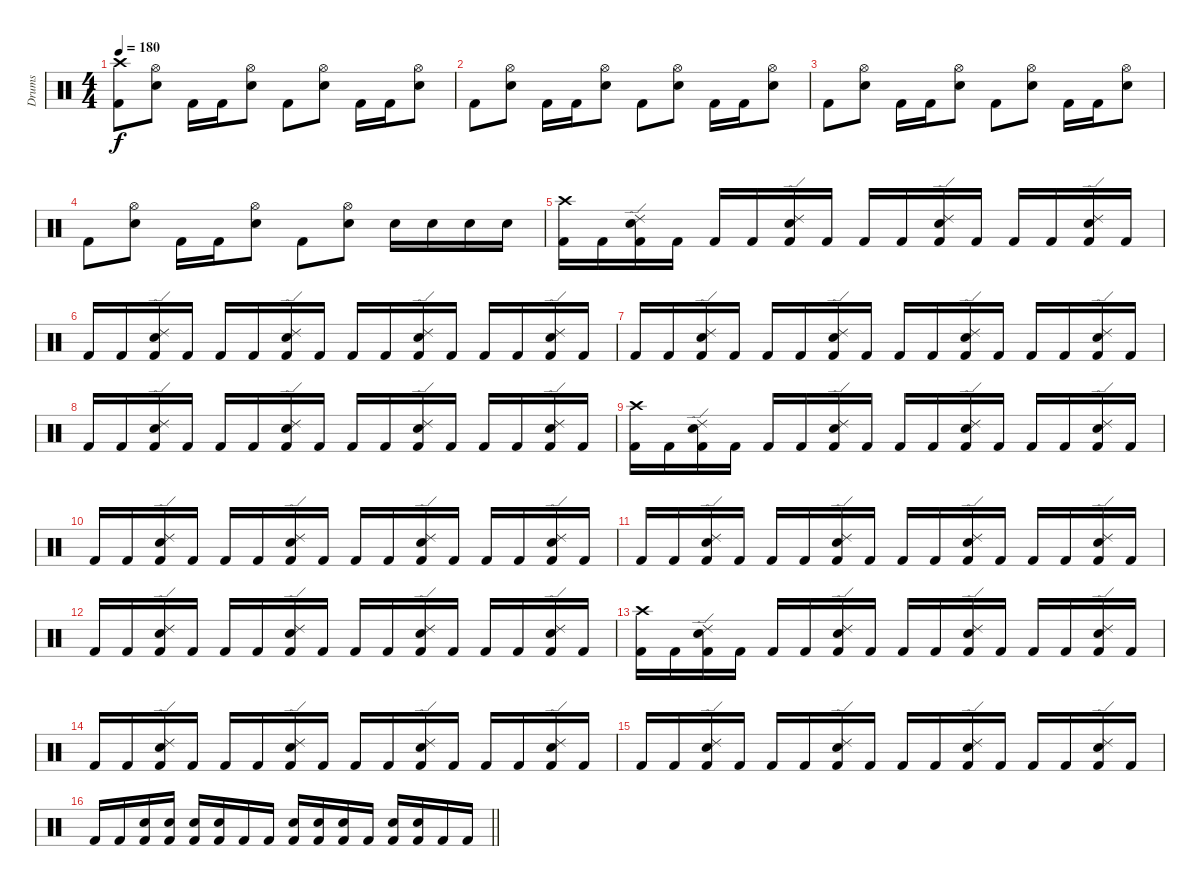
\track ("Drums" "Drums") {instrument percussion}
\staff {score}
\articulation defaults
\ts (4 4)
\tempo 180
\clef neutral
\ks c
("Crash high (hit)" "Kick (hit) 2").8{dy f} ("Hi-Hat (open)" "Electric Snare (hit)").8 "Kick (hit) 2".16 "Kick (hit) 2".16 ("Hi-Hat (open)" "Electric Snare (hit)").8 "Kick (hit) 2".8 ("Hi-Hat (open)" "Electric Snare (hit)").8 "Kick (hit) 2".16 "Kick (hit) 2".16 ("Hi-Hat (open)" "Electric Snare (hit)").8 |
"Kick (hit) 2".8 ("Hi-Hat (open)" "Electric Snare (hit)").8 "Kick (hit) 2".16 "Kick (hit) 2".16 ("Hi-Hat (open)" "Electric Snare (hit)").8 "Kick (hit) 2".8 ("Hi-Hat (open)" "Electric Snare (hit)").8 "Kick (hit) 2".16 "Kick (hit) 2".16 ("Hi-Hat (open)" "Electric Snare (hit)").8 |
"Kick (hit) 2".8 ("Hi-Hat (open)" "Electric Snare (hit)").8 "Kick (hit) 2".16 "Kick (hit) 2".16 ("Hi-Hat (open)" "Electric Snare (hit)").8 "Kick (hit) 2".8 ("Hi-Hat (open)" "Electric Snare (hit)").8 "Kick (hit) 2".16 "Kick (hit) 2".16 ("Hi-Hat (open)" "Electric Snare (hit)").8 |
"Kick (hit) 2".8 ("Hi-Hat (open)" "Electric Snare (hit)").8 "Kick (hit) 2".16 "Kick (hit) 2".16 ("Hi-Hat (open)" "Electric Snare (hit)").8 "Kick (hit) 2".8 ("Hi-Hat (open)" "Electric Snare (hit)").8 "Electric Snare (hit)".16 "Electric Snare (hit)".16 "Electric Snare (hit)".16 "Electric Snare (hit)".16 |
("Crash high (hit)" "Kick (hit) 2").16 "Kick (hit) 2".16 ("Ride (edge) 2" "Electric Snare (hit)" "Kick (hit) 2").16 "Kick (hit) 2".16 "Kick (hit) 2".16 "Kick (hit) 2".16 ("Ride (edge) 2" "Electric Snare (hit)" "Kick (hit) 2").16 "Kick (hit) 2".16 "Kick (hit) 2".16 "Kick (hit) 2".16 ("Ride (edge) 2" "Electric Snare (hit)" "Kick (hit) 2").16 "Kick (hit) 2".16 "Kick (hit) 2".16 "Kick (hit) 2".16 ("Ride (edge) 2" "Electric Snare (hit)" "Kick (hit) 2").16 "Kick (hit) 2".16 |
"Kick (hit) 2".16 "Kick (hit) 2".16 ("Ride (edge) 2" "Electric Snare (hit)" "Kick (hit) 2").16 "Kick (hit) 2".16 "Kick (hit) 2".16 "Kick (hit) 2".16 ("Ride (edge) 2" "Electric Snare (hit)" "Kick (hit) 2").16 "Kick (hit) 2".16 "Kick (hit) 2".16 "Kick (hit) 2".16 ("Ride (edge) 2" "Electric Snare (hit)" "Kick (hit) 2").16 "Kick (hit) 2".16 "Kick (hit) 2".16 "Kick (hit) 2".16 ("Ride (edge) 2" "Electric Snare (hit)" "Kick (hit) 2").16 "Kick (hit) 2".16 |
"Kick (hit) 2".16 "Kick (hit) 2".16 ("Ride (edge) 2" "Electric Snare (hit)" "Kick (hit) 2").16 "Kick (hit) 2".16 "Kick (hit) 2".16 "Kick (hit) 2".16 ("Ride (edge) 2" "Electric Snare (hit)" "Kick (hit) 2").16 "Kick (hit) 2".16 "Kick (hit) 2".16 "Kick (hit) 2".16 ("Ride (edge) 2" "Electric Snare (hit)" "Kick (hit) 2").16 "Kick (hit) 2".16 "Kick (hit) 2".16 "Kick (hit) 2".16 ("Ride (edge) 2" "Electric Snare (hit)" "Kick (hit) 2").16 "Kick (hit) 2".16 |
"Kick (hit) 2".16 "Kick (hit) 2".16 ("Ride (edge) 2" "Electric Snare (hit)" "Kick (hit) 2").16 "Kick (hit) 2".16 "Kick (hit) 2".16 "Kick (hit) 2".16 ("Ride (edge) 2" "Electric Snare (hit)" "Kick (hit) 2").16 "Kick (hit) 2".16 "Kick (hit) 2".16 "Kick (hit) 2".16 ("Ride (edge) 2" "Electric Snare (hit)" "Kick (hit) 2").16 "Kick (hit) 2".16 "Kick (hit) 2".16 "Kick (hit) 2".16 ("Ride (edge) 2" "Electric Snare (hit)" "Kick (hit) 2").16 "Kick (hit) 2".16 |
("Crash high (hit)" "Kick (hit) 2").16 "Kick (hit) 2".16 ("Ride (edge) 2" "Electric Snare (hit)" "Kick (hit) 2").16 "Kick (hit) 2".16 "Kick (hit) 2".16 "Kick (hit) 2".16 ("Ride (edge) 2" "Electric Snare (hit)" "Kick (hit) 2").16 "Kick (hit) 2".16 "Kick (hit) 2".16 "Kick (hit) 2".16 ("Ride (edge) 2" "Electric Snare (hit)" "Kick (hit) 2").16 "Kick (hit) 2".16 "Kick (hit) 2".16 "Kick (hit) 2".16 ("Ride (edge) 2" "Electric Snare (hit)" "Kick (hit) 2").16 "Kick (hit) 2".16 |
"Kick (hit) 2".16 "Kick (hit) 2".16 ("Ride (edge) 2" "Electric Snare (hit)" "Kick (hit) 2").16 "Kick (hit) 2".16 "Kick (hit) 2".16 "Kick (hit) 2".16 ("Ride (edge) 2" "Electric Snare (hit)" "Kick (hit) 2").16 "Kick (hit) 2".16 "Kick (hit) 2".16 "Kick (hit) 2".16 ("Ride (edge) 2" "Electric Snare (hit)" "Kick (hit) 2").16 "Kick (hit) 2".16 "Kick (hit) 2".16 "Kick (hit) 2".16 ("Ride (edge) 2" "Electric Snare (hit)" "Kick (hit) 2").16 "Kick (hit) 2".16 |
"Kick (hit) 2".16 "Kick (hit) 2".16 ("Ride (edge) 2" "Electric Snare (hit)" "Kick (hit) 2").16 "Kick (hit) 2".16 "Kick (hit) 2".16 "Kick (hit) 2".16 ("Ride (edge) 2" "Electric Snare (hit)" "Kick (hit) 2").16 "Kick (hit) 2".16 "Kick (hit) 2".16 "Kick (hit) 2".16 ("Ride (edge) 2" "Electric Snare (hit)" "Kick (hit) 2").16 "Kick (hit) 2".16 "Kick (hit) 2".16 "Kick (hit) 2".16 ("Ride (edge) 2" "Electric Snare (hit)" "Kick (hit) 2").16 "Kick (hit) 2".16 |
"Kick (hit) 2".16 "Kick (hit) 2".16 ("Ride (edge) 2" "Electric Snare (hit)" "Kick (hit) 2").16 "Kick (hit) 2".16 "Kick (hit) 2".16 "Kick (hit) 2".16 ("Ride (edge) 2" "Electric Snare (hit)" "Kick (hit) 2").16 "Kick (hit) 2".16 "Kick (hit) 2".16 "Kick (hit) 2".16 ("Ride (edge) 2" "Electric Snare (hit)" "Kick (hit) 2").16 "Kick (hit) 2".16 "Kick (hit) 2".16 "Kick (hit) 2".16 ("Ride (edge) 2" "Electric Snare (hit)" "Kick (hit) 2").16 "Kick (hit) 2".16 |
("Crash high (hit)" "Kick (hit) 2").16 "Kick (hit) 2".16 ("Ride (edge) 2" "Electric Snare (hit)" "Kick (hit) 2").16 "Kick (hit) 2".16 "Kick (hit) 2".16 "Kick (hit) 2".16 ("Ride (edge) 2" "Electric Snare (hit)" "Kick (hit) 2").16 "Kick (hit) 2".16 "Kick (hit) 2".16 "Kick (hit) 2".16 ("Ride (edge) 2" "Electric Snare (hit)" "Kick (hit) 2").16 "Kick (hit) 2".16 "Kick (hit) 2".16 "Kick (hit) 2".16 ("Ride (edge) 2" "Electric Snare (hit)" "Kick (hit) 2").16 "Kick (hit) 2".16 |
"Kick (hit) 2".16 "Kick (hit) 2".16 ("Ride (edge) 2" "Electric Snare (hit)" "Kick (hit) 2").16 "Kick (hit) 2".16 "Kick (hit) 2".16 "Kick (hit) 2".16 ("Ride (edge) 2" "Electric Snare (hit)" "Kick (hit) 2").16 "Kick (hit) 2".16 "Kick (hit) 2".16 "Kick (hit) 2".16 ("Ride (edge) 2" "Electric Snare (hit)" "Kick (hit) 2").16 "Kick (hit) 2".16 "Kick (hit) 2".16 "Kick (hit) 2".16 ("Ride (edge) 2" "Electric Snare (hit)" "Kick (hit) 2").16 "Kick (hit) 2".16 |
"Kick (hit) 2".16 "Kick (hit) 2".16 ("Ride (edge) 2" "Electric Snare (hit)" "Kick (hit) 2").16 "Kick (hit) 2".16 "Kick (hit) 2".16 "Kick (hit) 2".16 ("Ride (edge) 2" "Electric Snare (hit)" "Kick (hit) 2").16 "Kick (hit) 2".16 "Kick (hit) 2".16 "Kick (hit) 2".16 ("Ride (edge) 2" "Electric Snare (hit)" "Kick (hit) 2").16 "Kick (hit) 2".16 "Kick (hit) 2".16 "Kick (hit) 2".16 ("Ride (edge) 2" "Electric Snare (hit)" "Kick (hit) 2").16 "Kick (hit) 2".16 |
\barLineRight lightlight "Kick (hit) 2".16 "Kick (hit) 2".16
("Electric Snare (hit)" "Kick (hit) 2").16 ("Electric Snare (hit)" "Kick (hit) 2").16 ("Electric Snare (hit)" "Kick (hit) 2").16 ("Electric Snare (hit)" "Kick (hit) 2").16 "Kick (hit) 2".16 "Kick (hit) 2".16 ("Electric Snare (hit)" "Kick (hit) 2").16 ("Electric Snare (hit)" "Kick (hit) 2").16 ("Electric Snare (hit)" "Kick (hit) 2").16 "Kick (hit) 2".16 ("Electric Snare (hit)" "Kick (hit) 2").16 ("Electric Snare (hit)" "Kick (hit) 2").16 "Kick (hit) 2".16 "Kick (hit) 2".16
